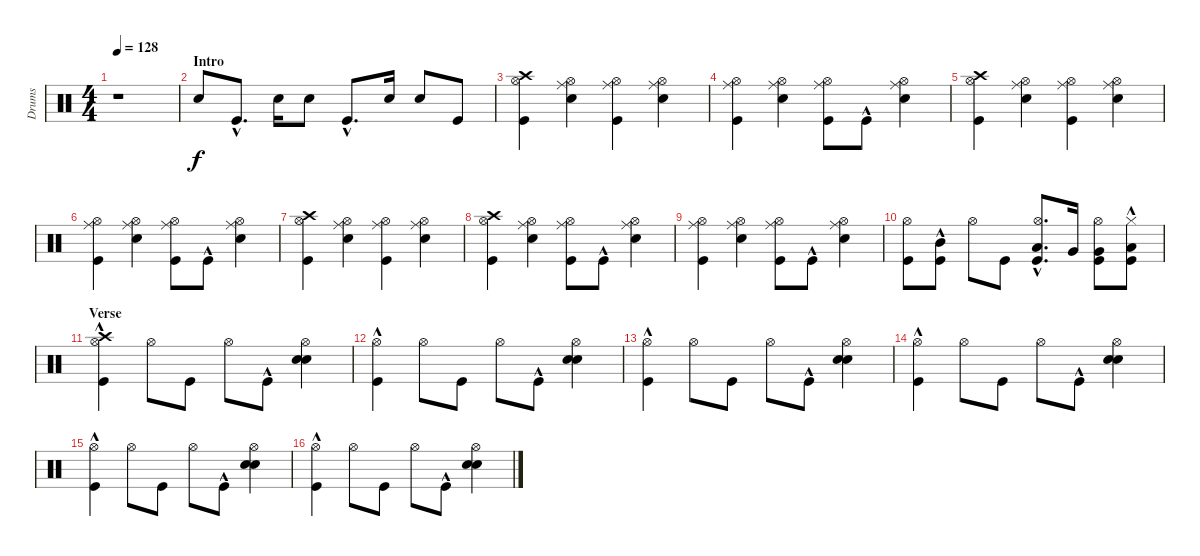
\track ("Drums" "Drums") {instrument percussion}
\staff {score}
\articulation defaults
\ts (4 4)
\tempo 128
\clef neutral
\ks c
r.1{dy f} |
\section ("" "Intro")
"Snare (hit) 2".8 "Kick (hit)"{hac}.8{d} "Snare (hit) 2".16 "Snare (hit) 2".8 "Kick (hit)"{hac}.8{d} "Snare (hit) 2".16 "Snare (hit) 2".8 "Kick (hit)".8 |
("Kick (hit)" "Hi-Hat (open)" "Crash high (hit)").4 ("Snare (hit) 2" "Hi-Hat (open)" "Ride (middle)").4 ("Kick (hit)" "Hi-Hat (open)" "Ride (middle)").4 ("Snare (hit) 2" "Hi-Hat (open)" "Ride (middle)").4 |
("Kick (hit)" "Hi-Hat (open)" "Ride (middle)").4 ("Snare (hit) 2" "Hi-Hat (open)" "Ride (middle)").4 ("Kick (hit)" "Hi-Hat (open)" "Ride (middle)").8 "Kick (hit)"{hac}.8 ("Snare (hit) 2" "Hi-Hat (open)" "Ride (middle)").4 |
("Kick (hit)" "Hi-Hat (open)" "Crash high (hit)").4 ("Snare (hit) 2" "Hi-Hat (open)" "Ride (middle)").4 ("Kick (hit)" "Hi-Hat (open)" "Ride (middle)").4 ("Snare (hit) 2" "Hi-Hat (open)" "Ride (middle)").4 |
("Kick (hit)" "Hi-Hat (open)" "Ride (middle)").4 ("Snare (hit) 2" "Hi-Hat (open)" "Ride (middle)").4 ("Kick (hit)" "Hi-Hat (open)" "Ride (middle)").8 "Kick (hit)"{hac}.8 ("Snare (hit) 2" "Hi-Hat (open)" "Ride (middle)").4 |
("Kick (hit)" "Hi-Hat (open)" "Crash high (hit)").4 ("Snare (hit) 2" "Hi-Hat (open)" "Ride (middle)").4 ("Kick (hit)" "Hi-Hat (open)" "Ride (middle)").4 ("Snare (hit) 2" "Hi-Hat (open)" "Ride (middle)").4 |
("Kick (hit)" "Hi-Hat (open)" "Crash high (hit)").4 ("Snare (hit) 2" "Hi-Hat (open)" "Ride (middle)").4 ("Kick (hit)" "Hi-Hat (open)" "Ride (middle)").8 "Kick (hit)"{hac}.8 ("Snare (hit) 2" "Hi-Hat (open)" "Ride (middle)").4 |
("Kick (hit)" "Hi-Hat (open)" "Ride (middle)").4 ("Snare (hit) 2" "Hi-Hat (open)" "Ride (middle)").4 ("Kick (hit)" "Hi-Hat (open)" "Ride (middle)").8 "Kick (hit)"{hac}.8 ("Snare (hit) 2" "Hi-Hat (open)" "Ride (middle)").4 |
("Kick (hit)" "Hi-Hat (open)").8 ("Kick (hit)" "Mid Tom (hit)"{hac}).8 "Hi-Hat (open)".8 "Kick (hit)".8 ("Kick (hit)" "Low Tom (hit)"{hac} "Hi-Hat (open)").8{d} "Very Low Tom (hit)".16 ("Kick (hit)" "Very Low Tom (hit)" "Hi-Hat (open)").8 ("Kick (hit)" "Low Floor Tom (hit)"{hac} "Hi-Hat (closed)").8 |
\section ("" "Verse")
("Kick (hit)"{hac} "Hi-Hat (open)" "Crash high (hit)").4 "Hi-Hat (open)".8 "Kick (hit)".8 "Hi-Hat (open)".8 "Kick (hit)"{hac}.8 ("Snare (hit) 2" "Hi-Hat (open)" "Snare (hit) 2").4 |
("Kick (hit)"{hac} "Hi-Hat (open)").4 "Hi-Hat (open)".8 "Kick (hit)".8 "Hi-Hat (open)".8 "Kick (hit)"{hac}.8 ("Snare (hit) 2" "Hi-Hat (open)" "Snare (hit) 2").4 |
("Kick (hit)"{hac} "Hi-Hat (open)").4 "Hi-Hat (open)".8 "Kick (hit)".8 "Hi-Hat (open)".8 "Kick (hit)"{hac}.8 ("Snare (hit) 2" "Hi-Hat (open)" "Snare (hit) 2").4 |
("Kick (hit)"{hac} "Hi-Hat (open)").4 "Hi-Hat (open)".8 "Kick (hit)".8 "Hi-Hat (open)".8 "Kick (hit)"{hac}.8 ("Snare (hit) 2" "Hi-Hat (open)" "Snare (hit) 2").4 |
("Kick (hit)"{hac} "Hi-Hat (open)").4 "Hi-Hat (open)".8 "Kick (hit)".8 "Hi-Hat (open)".8 "Kick (hit)"{hac}.8 ("Snare (hit) 2" "Hi-Hat (open)" "Snare (hit) 2").4 |
("Kick (hit)"{hac} "Hi-Hat (open)").4 "Hi-Hat (open)".8 "Kick (hit)".8 "Hi-Hat (open)".8 "Kick (hit)"{hac}.8 ("Snare (hit) 2" "Hi-Hat (open)" "Snare (hit) 2").4
